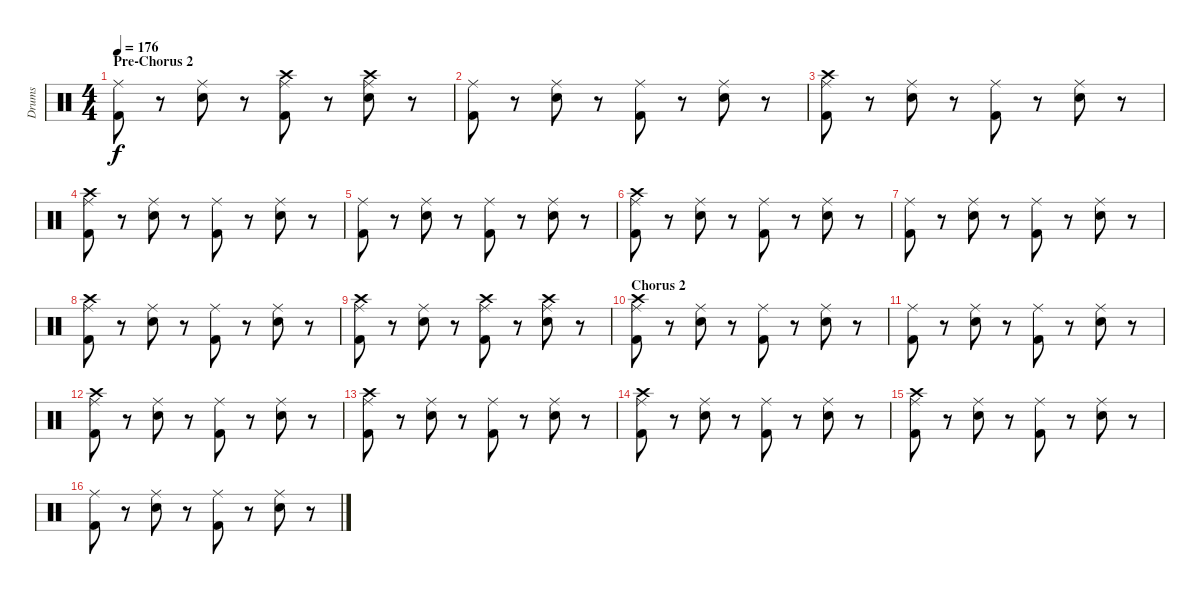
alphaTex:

\track ("Drums" "Drums") {instrument percussion}
\staff {score}
\articulation defaults
\ts (4 4)
\section ("" "Pre-Chorus 2")
\tempo 176
\clef neutral
\ks c
("Ride (middle)" "Kick (hit) 2").8{dy f} r.8 ("Ride (middle)" "Electric Snare (hit)").8 r.8 ("Crash high (hit)" "Ride (middle)" "Kick (hit) 2").8 r.8 ("Crash high (hit)" "Ride (middle)" "Electric Snare (hit)").8 r.8 |
("Ride (middle)" "Kick (hit) 2").8 r.8 ("Ride (middle)" "Electric Snare (hit)").8 r.8 ("Ride (middle)" "Kick (hit) 2").8 r.8 ("Ride (middle)" "Electric Snare (hit)").8 r.8 |
("Crash high (hit)" "Ride (middle)" "Kick (hit) 2").8 r.8 ("Ride (middle)" "Electric Snare (hit)").8 r.8 ("Ride (middle)" "Kick (hit) 2").8 r.8 ("Ride (middle)" "Electric Snare (hit)").8 r.8 |
("Crash high (hit)" "Ride (middle)" "Kick (hit) 2").8 r.8 ("Ride (middle)" "Electric Snare (hit)").8 r.8 ("Ride (middle)" "Kick (hit) 2").8 r.8 ("Ride (middle)" "Electric Snare (hit)").8 r.8 |
("Ride (middle)" "Kick (hit) 2").8 r.8 ("Ride (middle)" "Electric Snare (hit)").8 r.8 ("Ride (middle)" "Kick (hit) 2").8 r.8 ("Ride (middle)" "Electric Snare (hit)").8 r.8 |
("Crash high (hit)" "Ride (middle)" "Kick (hit) 2").8 r.8 ("Ride (middle)" "Electric Snare (hit)").8 r.8 ("Ride (middle)" "Kick (hit) 2").8 r.8 ("Ride (middle)" "Electric Snare (hit)").8 r.8 |
("Ride (middle)" "Kick (hit) 2").8 r.8 ("Ride (middle)" "Electric Snare (hit)").8 r.8 ("Ride (middle)" "Kick (hit) 2").8 r.8 ("Ride (middle)" "Electric Snare (hit)").8 r.8 |
("Crash high (hit)" "Ride (middle)" "Kick (hit) 2").8 r.8 ("Ride (middle)" "Electric Snare (hit)").8 r.8 ("Ride (middle)" "Kick (hit) 2").8 r.8 ("Ride (middle)" "Electric Snare (hit)").8 r.8 |
("Crash high (hit)" "Ride (middle)" "Kick (hit) 2").8 r.8 ("Ride (middle)" "Electric Snare (hit)").8 r.8 ("Crash high (hit)" "Ride (middle)" "Kick (hit) 2").8 r.8 ("Crash high (hit)" "Ride (middle)" "Electric Snare (hit)").8 r.8 |
\section ("" "Chorus 2")
("Crash high (hit)" "Ride (middle)" "Kick (hit) 2").8 r.8 ("Ride (middle)" "Electric Snare (hit)").8 r.8 ("Ride (middle)" "Kick (hit) 2").8 r.8 ("Ride (middle)" "Electric Snare (hit)").8 r.8 |
("Ride (middle)" "Kick (hit) 2").8 r.8 ("Ride (middle)" "Electric Snare (hit)").8 r.8 ("Ride (middle)" "Kick (hit) 2").8 r.8 ("Ride (middle)" "Electric Snare (hit)").8 r.8 |
("Crash high (hit)" "Ride (middle)" "Kick (hit) 2").8 r.8 ("Ride (middle)" "Electric Snare (hit)").8 r.8 ("Ride (middle)" "Kick (hit) 2").8 r.8 ("Ride (middle)" "Electric Snare (hit)").8 r.8 |
("Crash high (hit)" "Ride (middle)" "Kick (hit) 2").8 r.8 ("Ride (middle)" "Electric Snare (hit)").8 r.8 ("Ride (middle)" "Kick (hit) 2").8 r.8 ("Ride (middle)" "Electric Snare (hit)").8 r.8 |
("Crash high (hit)" "Ride (middle)" "Kick (hit) 2").8 r.8 ("Ride (middle)" "Electric Snare (hit)").8 r.8 ("Ride (middle)" "Kick (hit) 2").8 r.8 ("Ride (middle)" "Electric Snare (hit)").8 r.8 |
("Crash high (hit)" "Ride (middle)" "Kick (hit) 2").8 r.8 ("Ride (middle)" "Electric Snare (hit)").8 r.8 ("Ride (middle)" "Kick (hit) 2").8 r.8 ("Ride (middle)" "Electric Snare (hit)").8 r.8 |
("Ride (middle)" "Kick (hit) 2").8 r.8 ("Ride (middle)" "Electric Snare (hit)").8 r.8 ("Ride (middle)" "Kick (hit) 2").8 r.8 ("Ride (middle)" "Electric Snare (hit)").8 r.8
